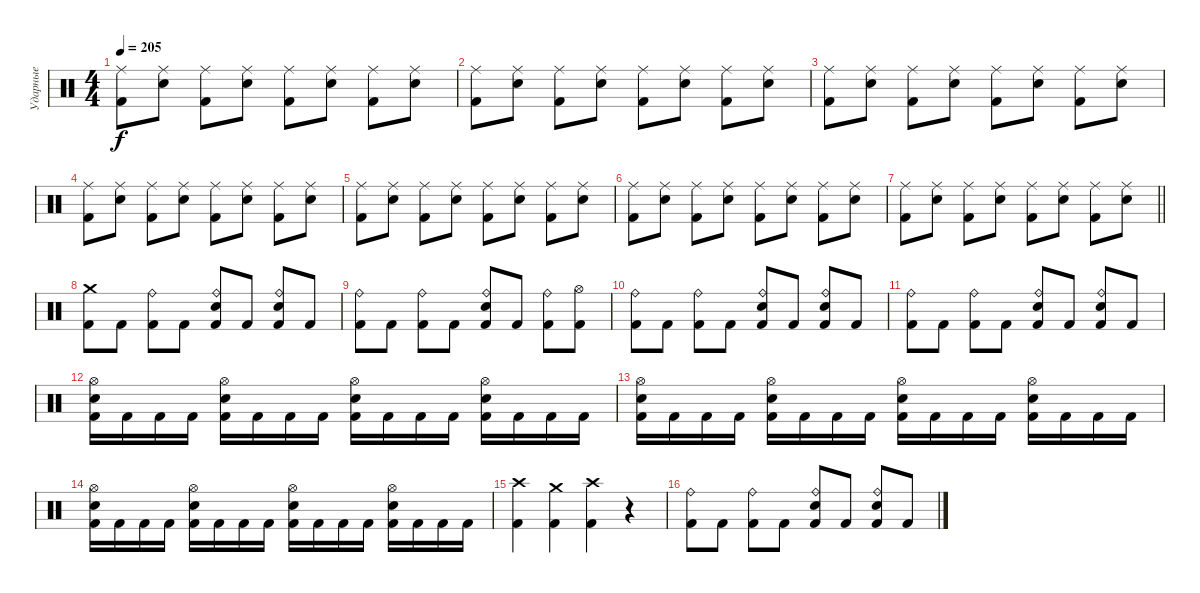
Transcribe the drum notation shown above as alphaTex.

\track ("Ударные" "Ударные") {instrument percussion}
\staff {score}
\articulation defaults
\ts (4 4)
\tempo 205
\clef neutral
\ks c
("Ride (middle)" "Kick (hit) 2").8{dy f} ("Ride (middle)" "Snare (hit) 2").8 ("Ride (middle)" "Kick (hit) 2").8 ("Ride (middle)" "Snare (hit) 2").8 ("Ride (middle)" "Kick (hit) 2").8 ("Ride (middle)" "Snare (hit) 2").8 ("Ride (middle)" "Kick (hit) 2").8 ("Ride (middle)" "Snare (hit) 2").8 |
("Ride (middle)" "Kick (hit) 2").8 ("Ride (middle)" "Snare (hit) 2").8 ("Ride (middle)" "Kick (hit) 2").8 ("Ride (middle)" "Snare (hit) 2").8 ("Ride (middle)" "Kick (hit) 2").8 ("Ride (middle)" "Snare (hit) 2").8 ("Ride (middle)" "Kick (hit) 2").8 ("Ride (middle)" "Snare (hit) 2").8 |
("Ride (middle)" "Kick (hit) 2").8 ("Ride (middle)" "Snare (hit) 2").8 ("Ride (middle)" "Kick (hit) 2").8 ("Ride (middle)" "Snare (hit) 2").8 ("Ride (middle)" "Kick (hit) 2").8 ("Ride (middle)" "Snare (hit) 2").8 ("Ride (middle)" "Kick (hit) 2").8 ("Ride (middle)" "Snare (hit) 2").8 |
("Ride (middle)" "Kick (hit) 2").8 ("Ride (middle)" "Snare (hit) 2").8 ("Ride (middle)" "Kick (hit) 2").8 ("Ride (middle)" "Snare (hit) 2").8 ("Ride (middle)" "Kick (hit) 2").8 ("Ride (middle)" "Snare (hit) 2").8 ("Ride (middle)" "Kick (hit) 2").8 ("Ride (middle)" "Snare (hit) 2").8 |
("Ride (middle)" "Kick (hit) 2").8 ("Ride (middle)" "Snare (hit) 2").8 ("Ride (middle)" "Kick (hit) 2").8 ("Ride (middle)" "Snare (hit) 2").8 ("Ride (middle)" "Kick (hit) 2").8 ("Ride (middle)" "Snare (hit) 2").8 ("Ride (middle)" "Kick (hit) 2").8 ("Ride (middle)" "Snare (hit) 2").8 |
("Ride (middle)" "Kick (hit) 2").8 ("Ride (middle)" "Snare (hit) 2").8 ("Ride (middle)" "Kick (hit) 2").8 ("Ride (middle)" "Snare (hit) 2").8 ("Ride (middle)" "Kick (hit) 2").8 ("Ride (middle)" "Snare (hit) 2").8 ("Ride (middle)" "Kick (hit) 2").8 ("Ride (middle)" "Snare (hit) 2").8 |
\barLineRight lightlight
("Ride (middle)" "Kick (hit) 2").8 ("Ride (middle)" "Snare (hit) 2").8 ("Ride (middle)" "Kick (hit) 2").8 ("Ride (middle)" "Snare (hit) 2").8 ("Ride (middle)" "Kick (hit) 2").8 ("Ride (middle)" "Snare (hit) 2").8 ("Ride (middle)" "Kick (hit) 2").8 ("Ride (middle)" "Snare (hit) 2").8 |
("Crash medium (hit)" "Kick (hit) 2").8 "Kick (hit) 2".8 ("Ride (bell)" "Kick (hit) 2").8 "Kick (hit) 2".8 ("Ride (bell)" "Electric Snare (hit)" "Kick (hit) 2").8 "Kick (hit) 2".8 ("Ride (bell)" "Electric Snare (hit)" "Kick (hit) 2").8 "Kick (hit) 2".8 |
("Ride (bell)" "Kick (hit) 2").8 "Kick (hit) 2".8 ("Ride (bell)" "Kick (hit) 2").8 "Kick (hit) 2".8 ("Ride (bell)" "Electric Snare (hit)" "Kick (hit) 2").8 "Kick (hit) 2".8 ("Ride (bell)" "Kick (hit) 2").8 ("Hi-Hat (open)" "Kick (hit) 2").8 |
("Ride (bell)" "Kick (hit) 2").8 "Kick (hit) 2".8 ("Ride (bell)" "Kick (hit) 2").8 "Kick (hit) 2".8 ("Ride (bell)" "Electric Snare (hit)" "Kick (hit) 2").8 "Kick (hit) 2".8 ("Ride (bell)" "Electric Snare (hit)" "Kick (hit) 2").8 "Kick (hit) 2".8 |
("Ride (bell)" "Kick (hit) 2").8 "Kick (hit) 2".8 ("Ride (bell)" "Kick (hit) 2").8 "Kick (hit) 2".8 ("Ride (bell)" "Electric Snare (hit)" "Kick (hit) 2").8 "Kick (hit) 2".8 ("Ride (bell)" "Electric Snare (hit)" "Kick (hit) 2").8 "Kick (hit) 2".8 |
("Hi-Hat (open)" "Electric Snare (hit)" "Kick (hit) 2").16 "Kick (hit) 2".16 "Kick (hit) 2".16 "Kick (hit) 2".16 ("Hi-Hat (open)" "Electric Snare (hit)" "Kick (hit) 2").16 "Kick (hit) 2".16 "Kick (hit) 2".16 "Kick (hit) 2".16 ("Hi-Hat (open)" "Electric Snare (hit)" "Kick (hit) 2").16 "Kick (hit) 2".16 "Kick (hit) 2".16 "Kick (hit) 2".16 ("Hi-Hat (open)" "Electric Snare (hit)" "Kick (hit) 2").16 "Kick (hit) 2".16 "Kick (hit) 2".16 "Kick (hit) 2".16 |
("Hi-Hat (open)" "Electric Snare (hit)" "Kick (hit) 2").16 "Kick (hit) 2".16 "Kick (hit) 2".16 "Kick (hit) 2".16 ("Hi-Hat (open)" "Electric Snare (hit)" "Kick (hit) 2").16 "Kick (hit) 2".16 "Kick (hit) 2".16 "Kick (hit) 2".16 ("Hi-Hat (open)" "Electric Snare (hit)" "Kick (hit) 2").16 "Kick (hit) 2".16 "Kick (hit) 2".16 "Kick (hit) 2".16 ("Hi-Hat (open)" "Electric Snare (hit)" "Kick (hit) 2").16 "Kick (hit) 2".16 "Kick (hit) 2".16 "Kick (hit) 2".16 |
("Hi-Hat (open)" "Electric Snare (hit)" "Kick (hit) 2").16 "Kick (hit) 2".16 "Kick (hit) 2".16 "Kick (hit) 2".16 ("Hi-Hat (open)" "Electric Snare (hit)" "Kick (hit) 2").16 "Kick (hit) 2".16 "Kick (hit) 2".16 "Kick (hit) 2".16 ("Hi-Hat (open)" "Electric Snare (hit)" "Kick (hit) 2").16 "Kick (hit) 2".16 "Kick (hit) 2".16 "Kick (hit) 2".16 ("Hi-Hat (open)" "Electric Snare (hit)" "Kick (hit) 2").16 "Kick (hit) 2".16 "Kick (hit) 2".16 "Kick (hit) 2".16 |
("Crash high (hit)" "Kick (hit) 2").4 ("Crash medium (hit)" "Kick (hit) 2").4 ("Crash high (hit)" "Kick (hit) 2").4 r.4 |
("Ride (bell)" "Kick (hit) 2").8 "Kick (hit) 2".8 ("Ride (bell)" "Kick (hit) 2").8 "Kick (hit) 2".8 ("Ride (bell)" "Electric Snare (hit)" "Kick (hit) 2").8 "Kick (hit) 2".8 ("Ride (bell)" "Electric Snare (hit)" "Kick (hit) 2").8 "Kick (hit) 2".8
